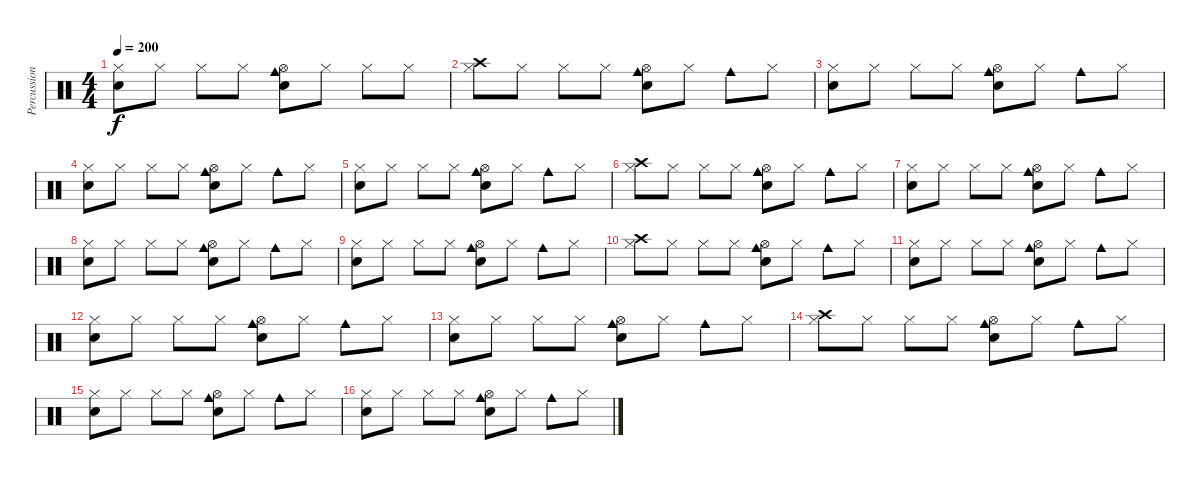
\track ("Percussion" "Percussion") {instrument percussion}
\staff {score}
\articulation defaults
\ts (4 4)
\tempo 200
\clef neutral
\ks c
("Hi-Hat (closed)" "Electric Snare (hit)").8{dy f} "Hi-Hat (closed)".8 "Hi-Hat (closed)".8 "Hi-Hat (closed)".8 ("Cowbell medium (hit)" "Snare (hit) 2" "Hi-Hat (open)").8 "Hi-Hat (closed)".8 "Hi-Hat (closed)".8 "Hi-Hat (closed)".8 |
("Hi-Hat (closed)" "Crash high (hit)").8 "Hi-Hat (closed)".8 "Hi-Hat (closed)".8 "Hi-Hat (closed)".8 ("Cowbell medium (hit)" "Snare (hit) 2" "Hi-Hat (open)").8 "Hi-Hat (closed)".8 "Cowbell medium (hit)".8 "Hi-Hat (closed)".8 |
("Hi-Hat (closed)" "Electric Snare (hit)").8 "Hi-Hat (closed)".8 "Hi-Hat (closed)".8 "Hi-Hat (closed)".8 ("Cowbell medium (hit)" "Snare (hit) 2" "Hi-Hat (open)").8 "Hi-Hat (closed)".8 "Cowbell medium (hit)".8 "Hi-Hat (closed)".8 |
("Hi-Hat (closed)" "Electric Snare (hit)").8 "Hi-Hat (closed)".8 "Hi-Hat (closed)".8 "Hi-Hat (closed)".8 ("Cowbell medium (hit)" "Snare (hit) 2" "Hi-Hat (open)").8 "Hi-Hat (closed)".8 "Cowbell medium (hit)".8 "Hi-Hat (closed)".8 |
("Hi-Hat (closed)" "Electric Snare (hit)").8 "Hi-Hat (closed)".8 "Hi-Hat (closed)".8 "Hi-Hat (closed)".8 ("Cowbell medium (hit)" "Snare (hit) 2" "Hi-Hat (open)").8 "Hi-Hat (closed)".8 "Cowbell medium (hit)".8 "Hi-Hat (closed)".8 |
("Hi-Hat (closed)" "Crash high (hit)").8 "Hi-Hat (closed)".8 "Hi-Hat (closed)".8 "Hi-Hat (closed)".8 ("Cowbell medium (hit)" "Snare (hit) 2" "Hi-Hat (open)").8 "Hi-Hat (closed)".8 "Cowbell medium (hit)".8 "Hi-Hat (closed)".8 |
("Hi-Hat (closed)" "Electric Snare (hit)").8 "Hi-Hat (closed)".8 "Hi-Hat (closed)".8 "Hi-Hat (closed)".8 ("Cowbell medium (hit)" "Snare (hit) 2" "Hi-Hat (open)").8 "Hi-Hat (closed)".8 "Cowbell medium (hit)".8 "Hi-Hat (closed)".8 |
("Hi-Hat (closed)" "Electric Snare (hit)").8 "Hi-Hat (closed)".8 "Hi-Hat (closed)".8 "Hi-Hat (closed)".8 ("Cowbell medium (hit)" "Snare (hit) 2" "Hi-Hat (open)").8 "Hi-Hat (closed)".8 "Cowbell medium (hit)".8 "Hi-Hat (closed)".8 |
("Hi-Hat (closed)" "Electric Snare (hit)").8 "Hi-Hat (closed)".8 "Hi-Hat (closed)".8 "Hi-Hat (closed)".8 ("Cowbell medium (hit)" "Snare (hit) 2" "Hi-Hat (open)").8 "Hi-Hat (closed)".8 "Cowbell medium (hit)".8 "Hi-Hat (closed)".8 |
("Hi-Hat (closed)" "Crash high (hit)").8 "Hi-Hat (closed)".8 "Hi-Hat (closed)".8 "Hi-Hat (closed)".8 ("Cowbell medium (hit)" "Snare (hit) 2" "Hi-Hat (open)").8 "Hi-Hat (closed)".8 "Cowbell medium (hit)".8 "Hi-Hat (closed)".8 |
("Hi-Hat (closed)" "Electric Snare (hit)").8 "Hi-Hat (closed)".8 "Hi-Hat (closed)".8 "Hi-Hat (closed)".8 ("Cowbell medium (hit)" "Snare (hit) 2" "Hi-Hat (open)").8 "Hi-Hat (closed)".8 "Cowbell medium (hit)".8 "Hi-Hat (closed)".8 |
("Hi-Hat (closed)" "Electric Snare (hit)").8 "Hi-Hat (closed)".8 "Hi-Hat (closed)".8 "Hi-Hat (closed)".8 ("Cowbell medium (hit)" "Snare (hit) 2" "Hi-Hat (open)").8 "Hi-Hat (closed)".8 "Cowbell medium (hit)".8 "Hi-Hat (closed)".8 |
("Hi-Hat (closed)" "Electric Snare (hit)").8 "Hi-Hat (closed)".8 "Hi-Hat (closed)".8 "Hi-Hat (closed)".8 ("Cowbell medium (hit)" "Snare (hit) 2" "Hi-Hat (open)").8 "Hi-Hat (closed)".8 "Cowbell medium (hit)".8 "Hi-Hat (closed)".8 |
("Hi-Hat (closed)" "Crash high (hit)").8 "Hi-Hat (closed)".8 "Hi-Hat (closed)".8 "Hi-Hat (closed)".8 ("Cowbell medium (hit)" "Snare (hit) 2" "Hi-Hat (open)").8 "Hi-Hat (closed)".8 "Cowbell medium (hit)".8 "Hi-Hat (closed)".8 |
("Hi-Hat (closed)" "Electric Snare (hit)").8 "Hi-Hat (closed)".8 "Hi-Hat (closed)".8 "Hi-Hat (closed)".8 ("Cowbell medium (hit)" "Snare (hit) 2" "Hi-Hat (open)").8 "Hi-Hat (closed)".8 "Cowbell medium (hit)".8 "Hi-Hat (closed)".8 |
("Hi-Hat (closed)" "Electric Snare (hit)").8 "Hi-Hat (closed)".8 "Hi-Hat (closed)".8 "Hi-Hat (closed)".8 ("Cowbell medium (hit)" "Snare (hit) 2" "Hi-Hat (open)").8 "Hi-Hat (closed)".8 "Cowbell medium (hit)".8 "Hi-Hat (closed)".8
